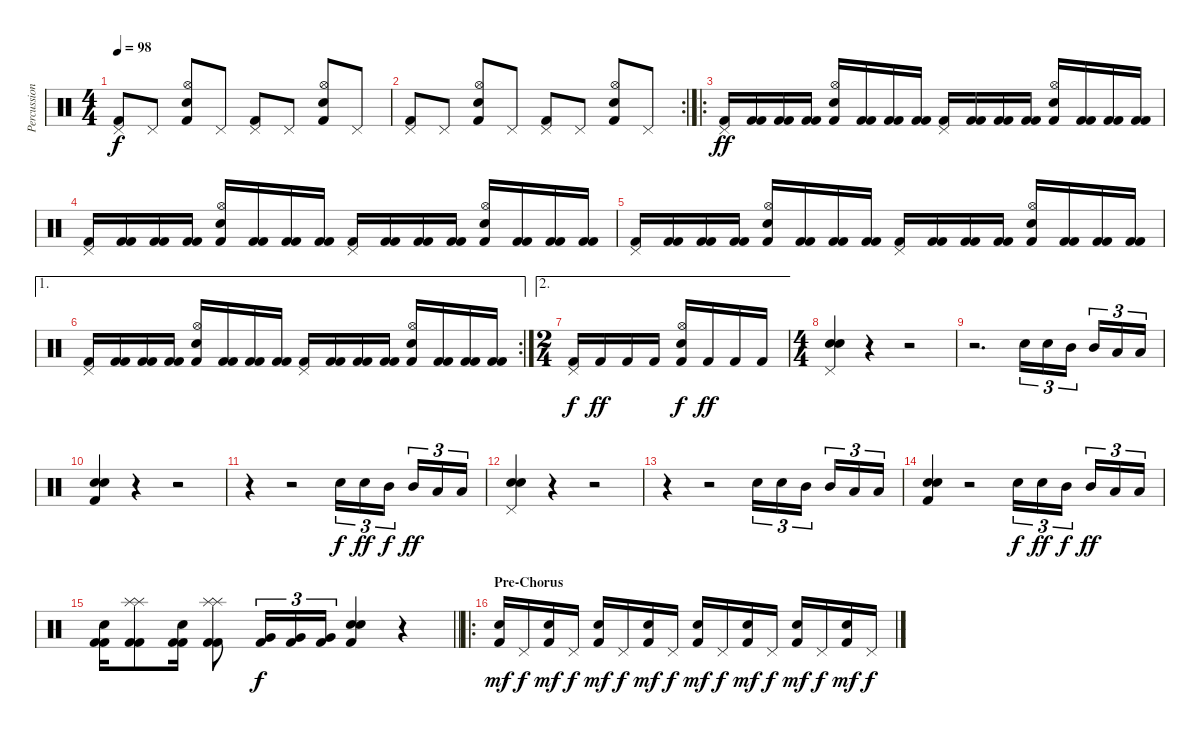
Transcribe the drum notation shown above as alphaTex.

\track ("Percussion" "Percussion") {instrument percussion}
\staff {score}
\articulation defaults
\ts (4 4)
\tempo 98
\clef neutral
\ks c
("Pedal Hi-Hat (hit)" "Kick (hit) 2").8{dy f} "Pedal Hi-Hat (hit)".8 ("Hi-Hat (open)" "Snare (hit) 2" "Kick (hit) 2").8 "Pedal Hi-Hat (hit)".8 ("Pedal Hi-Hat (hit)" "Kick (hit) 2").8 "Pedal Hi-Hat (hit)".8 ("Hi-Hat (open)" "Snare (hit) 2" "Kick (hit) 2").8 "Pedal Hi-Hat (hit)".8 |
\rc 2
("Pedal Hi-Hat (hit)" "Kick (hit) 2").8 "Pedal Hi-Hat (hit)".8 ("Hi-Hat (open)" "Snare (hit) 2" "Kick (hit) 2").8 "Pedal Hi-Hat (hit)".8 ("Pedal Hi-Hat (hit)" "Kick (hit) 2").8 "Pedal Hi-Hat (hit)".8 ("Hi-Hat (open)" "Snare (hit) 2" "Kick (hit) 2").8 "Pedal Hi-Hat (hit)".8 |
\ro
("Pedal Hi-Hat (hit)" "Kick (hit) 2").16{dy ff} ("Kick (hit) 2" "Kick (hit) 2").16 ("Kick (hit) 2" "Kick (hit) 2").16 ("Kick (hit) 2" "Kick (hit) 2").16 ("Hi-Hat (open)" "Snare (hit) 2" "Kick (hit) 2").16 ("Kick (hit) 2" "Kick (hit) 2").16 ("Kick (hit) 2" "Kick (hit) 2").16 ("Kick (hit) 2" "Kick (hit) 2").16 ("Pedal Hi-Hat (hit)" "Kick (hit) 2").16 ("Kick (hit) 2" "Kick (hit) 2").16 ("Kick (hit) 2" "Kick (hit) 2").16 ("Kick (hit) 2" "Kick (hit) 2").16 ("Hi-Hat (open)" "Snare (hit) 2" "Kick (hit) 2").16 ("Kick (hit) 2" "Kick (hit) 2").16 ("Kick (hit) 2" "Kick (hit) 2").16 ("Kick (hit) 2" "Kick (hit) 2").16 |
("Pedal Hi-Hat (hit)" "Kick (hit) 2").16 ("Kick (hit) 2" "Kick (hit) 2").16 ("Kick (hit) 2" "Kick (hit) 2").16 ("Kick (hit) 2" "Kick (hit) 2").16 ("Hi-Hat (open)" "Snare (hit) 2" "Kick (hit) 2").16 ("Kick (hit) 2" "Kick (hit) 2").16 ("Kick (hit) 2" "Kick (hit) 2").16 ("Kick (hit) 2" "Kick (hit) 2").16 ("Pedal Hi-Hat (hit)" "Kick (hit) 2").16 ("Kick (hit) 2" "Kick (hit) 2").16 ("Kick (hit) 2" "Kick (hit) 2").16 ("Kick (hit) 2" "Kick (hit) 2").16 ("Hi-Hat (open)" "Snare (hit) 2" "Kick (hit) 2").16 ("Kick (hit) 2" "Kick (hit) 2").16 ("Kick (hit) 2" "Kick (hit) 2").16 ("Kick (hit) 2" "Kick (hit) 2").16 |
("Pedal Hi-Hat (hit)" "Kick (hit) 2").16 ("Kick (hit) 2" "Kick (hit) 2").16 ("Kick (hit) 2" "Kick (hit) 2").16 ("Kick (hit) 2" "Kick (hit) 2").16 ("Hi-Hat (open)" "Snare (hit) 2" "Kick (hit) 2").16 ("Kick (hit) 2" "Kick (hit) 2").16 ("Kick (hit) 2" "Kick (hit) 2").16 ("Kick (hit) 2" "Kick (hit) 2").16 ("Pedal Hi-Hat (hit)" "Kick (hit) 2").16 ("Kick (hit) 2" "Kick (hit) 2").16 ("Kick (hit) 2" "Kick (hit) 2").16 ("Kick (hit) 2" "Kick (hit) 2").16 ("Hi-Hat (open)" "Snare (hit) 2" "Kick (hit) 2").16 ("Kick (hit) 2" "Kick (hit) 2").16 ("Kick (hit) 2" "Kick (hit) 2").16 ("Kick (hit) 2" "Kick (hit) 2").16 |
\ae 1
\rc 2
("Pedal Hi-Hat (hit)" "Kick (hit) 2").16 ("Kick (hit) 2" "Kick (hit) 2").16 ("Kick (hit) 2" "Kick (hit) 2").16 ("Kick (hit) 2" "Kick (hit) 2").16 ("Hi-Hat (open)" "Snare (hit) 2" "Kick (hit) 2").16 ("Kick (hit) 2" "Kick (hit) 2").16 ("Kick (hit) 2" "Kick (hit) 2").16 ("Kick (hit) 2" "Kick (hit) 2").16 ("Pedal Hi-Hat (hit)" "Kick (hit) 2").16 ("Kick (hit) 2" "Kick (hit) 2").16 ("Kick (hit) 2" "Kick (hit) 2").16 ("Kick (hit) 2" "Kick (hit) 2").16 ("Hi-Hat (open)" "Snare (hit) 2" "Kick (hit) 2").16 ("Kick (hit) 2" "Kick (hit) 2").16 ("Kick (hit) 2" "Kick (hit) 2").16 ("Kick (hit) 2" "Kick (hit) 2").16 |
\ae 2
\ts (2 4)
("Pedal Hi-Hat (hit)" "Kick (hit) 2").16{dy f} "Kick (hit) 2".16{dy ff} "Kick (hit) 2".16 "Kick (hit) 2".16 ("Hi-Hat (open)" "Snare (hit) 2" "Kick (hit) 2").16{dy f} "Kick (hit) 2".16{dy ff} "Kick (hit) 2".16 "Kick (hit) 2".16 |
\ts (4 4)
("Pedal Hi-Hat (hit)" "Snare (hit) 2" "Snare (hit) 2").4 r.4 r.2 |
r.2{d} "Snare (hit) 2".16{tu (3 2)} "Snare (hit) 2".16{tu (3 2)} "Mid Tom (hit)".16{tu (3 2) beam splitsecondary} "Mid Tom (hit)".16{tu (3 2)} "Low Tom (hit)".16{tu (3 2)} "Low Tom (hit)".16{tu (3 2)} |
("Snare (hit) 2" "Snare (hit) 2" "Kick (hit) 2").4 r.4 r.2 |
r.4 r.2 "Snare (hit) 2".16{tu (3 2) dy f} "Snare (hit) 2".16{tu (3 2) dy ff} "Mid Tom (hit)".16{tu (3 2) dy f beam splitsecondary} "Mid Tom (hit)".16{tu (3 2) dy ff} "Low Tom (hit)".16{tu (3 2)} "Low Tom (hit)".16{tu (3 2)} |
("Pedal Hi-Hat (hit)" "Snare (hit) 2" "Snare (hit) 2").4 r.4 r.2 |
r.4 r.2 "Snare (hit) 2".16{tu (3 2)} "Snare (hit) 2".16{tu (3 2)} "Mid Tom (hit)".16{tu (3 2) beam splitsecondary} "Mid Tom (hit)".16{tu (3 2)} "Low Tom (hit)".16{tu (3 2)} "Low Tom (hit)".16{tu (3 2)} |
("Snare (hit) 2" "Snare (hit) 2" "Kick (hit) 2").4 r.2 "Snare (hit) 2".16{tu (3 2) dy f} "Snare (hit) 2".16{tu (3 2) dy ff} "Mid Tom (hit)".16{tu (3 2) dy f beam splitsecondary} "Mid Tom (hit)".16{tu (3 2) dy ff} "Low Tom (hit)".16{tu (3 2)} "Low Tom (hit)".16{tu (3 2)} |
\barLineRight lightlight
("Snare (hit) 2" "Kick (hit) 2" "Kick (hit) 2").16 ("Splash (hit)" "Splash (hit)" "Kick (hit) 2" "Kick (hit) 2").8 ("Snare (hit) 2" "Kick (hit) 2" "Kick (hit) 2").16 ("Splash (hit)" "Splash (hit)" "Kick (hit) 2" "Kick (hit) 2").8 ("Very Low Tom (hit)" "Kick (hit) 2").16{tu (3 2) dy f} ("Very Low Tom (hit)" "Kick (hit) 2").16{tu (3 2)} ("Very Low Tom (hit)" "Kick (hit) 2").16{tu (3 2)} ("Snare (hit) 2" "Snare (hit) 2" "Kick (hit) 2").4 r.4 |
\ro
\section ("" "Pre-Chorus")
("Snare (hit) 2" "Kick (hit) 2").16{dy mf} "Pedal Hi-Hat (hit)".16{dy f} ("Snare (hit) 2" "Kick (hit) 2").16{dy mf} "Pedal Hi-Hat (hit)".16{dy f} ("Snare (hit) 2" "Kick (hit) 2").16{dy mf} "Pedal Hi-Hat (hit)".16{dy f} ("Snare (hit) 2" "Kick (hit) 2").16{dy mf} "Pedal Hi-Hat (hit)".16{dy f} ("Snare (hit) 2" "Kick (hit) 2").16{dy mf} "Pedal Hi-Hat (hit)".16{dy f} ("Snare (hit) 2" "Kick (hit) 2").16{dy mf} "Pedal Hi-Hat (hit)".16{dy f} ("Snare (hit) 2" "Kick (hit) 2").16{dy mf} "Pedal Hi-Hat (hit)".16{dy f} ("Snare (hit) 2" "Kick (hit) 2").16{dy mf} "Pedal Hi-Hat (hit)".16{dy f}
